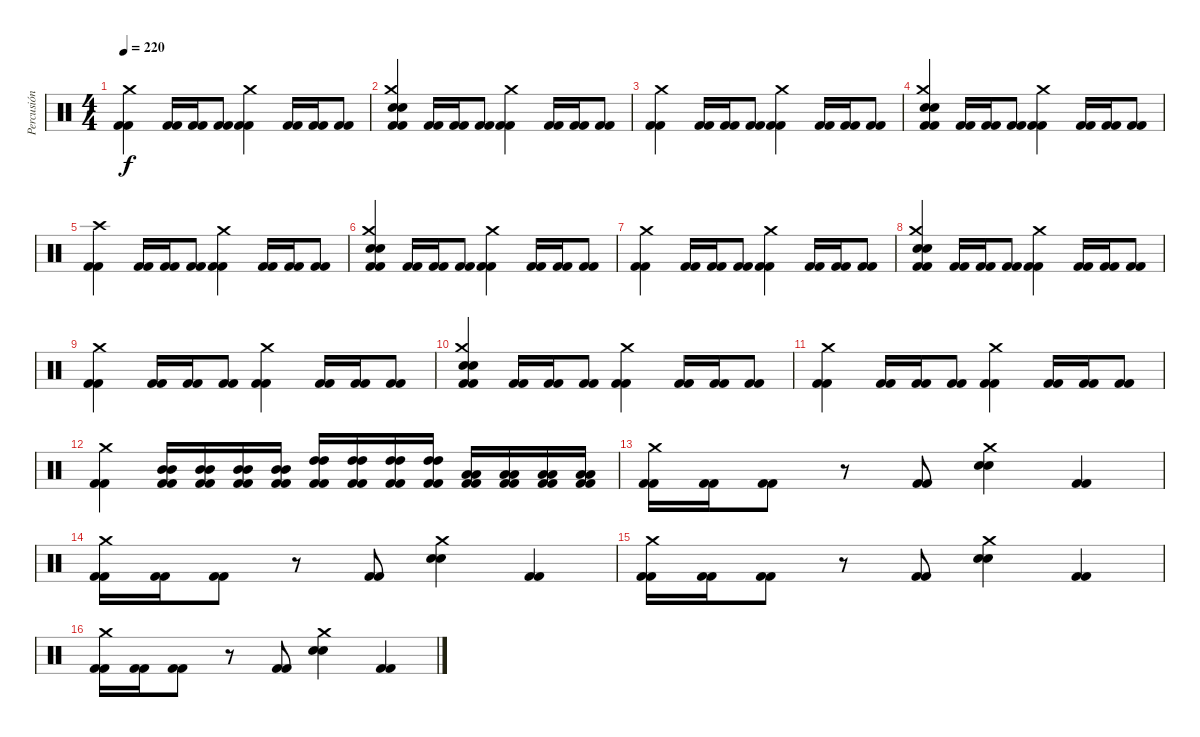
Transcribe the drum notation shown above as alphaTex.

\track ("Percusión" "Percusión") {instrument percussion}
\staff {score}
\articulation defaults
\ts (4 4)
\tempo 220
\clef neutral
\ks c
("Kick (hit) 2" "Kick (hit) 2" "Crash medium (hit)").4{dy f} ("Kick (hit) 2" "Kick (hit) 2").16 ("Kick (hit) 2" "Kick (hit) 2").16 ("Kick (hit) 2" "Kick (hit) 2").8 ("Kick (hit) 2" "Kick (hit) 2" "Crash medium (hit)").4 ("Kick (hit) 2" "Kick (hit) 2").16 ("Kick (hit) 2" "Kick (hit) 2").16 ("Kick (hit) 2" "Kick (hit) 2").8 |
("Kick (hit) 2" "Kick (hit) 2" "Electric Snare (hit)" "Electric Snare (hit)" "Crash medium (hit)").4 ("Kick (hit) 2" "Kick (hit) 2").16 ("Kick (hit) 2" "Kick (hit) 2").16 ("Kick (hit) 2" "Kick (hit) 2").8 ("Kick (hit) 2" "Kick (hit) 2" "Crash medium (hit)").4 ("Kick (hit) 2" "Kick (hit) 2").16 ("Kick (hit) 2" "Kick (hit) 2").16 ("Kick (hit) 2" "Kick (hit) 2").8 |
("Kick (hit) 2" "Kick (hit) 2" "Crash medium (hit)").4 ("Kick (hit) 2" "Kick (hit) 2").16 ("Kick (hit) 2" "Kick (hit) 2").16 ("Kick (hit) 2" "Kick (hit) 2").8 ("Kick (hit) 2" "Kick (hit) 2" "Crash medium (hit)").4 ("Kick (hit) 2" "Kick (hit) 2").16 ("Kick (hit) 2" "Kick (hit) 2").16 ("Kick (hit) 2" "Kick (hit) 2").8 |
("Kick (hit) 2" "Kick (hit) 2" "Electric Snare (hit)" "Electric Snare (hit)" "Crash medium (hit)").4 ("Kick (hit) 2" "Kick (hit) 2").16 ("Kick (hit) 2" "Kick (hit) 2").16 ("Kick (hit) 2" "Kick (hit) 2").8 ("Kick (hit) 2" "Kick (hit) 2" "Crash medium (hit)").4 ("Kick (hit) 2" "Kick (hit) 2").16 ("Kick (hit) 2" "Kick (hit) 2").16 ("Kick (hit) 2" "Kick (hit) 2").8 |
("Kick (hit) 2" "Kick (hit) 2" "Crash high (hit)").4 ("Kick (hit) 2" "Kick (hit) 2").16 ("Kick (hit) 2" "Kick (hit) 2").16 ("Kick (hit) 2" "Kick (hit) 2").8 ("Kick (hit) 2" "Kick (hit) 2" "Crash medium (hit)").4 ("Kick (hit) 2" "Kick (hit) 2").16 ("Kick (hit) 2" "Kick (hit) 2").16 ("Kick (hit) 2" "Kick (hit) 2").8 |
("Kick (hit) 2" "Kick (hit) 2" "Electric Snare (hit)" "Electric Snare (hit)" "Crash medium (hit)").4 ("Kick (hit) 2" "Kick (hit) 2").16 ("Kick (hit) 2" "Kick (hit) 2").16 ("Kick (hit) 2" "Kick (hit) 2").8 ("Kick (hit) 2" "Kick (hit) 2" "Crash medium (hit)").4 ("Kick (hit) 2" "Kick (hit) 2").16 ("Kick (hit) 2" "Kick (hit) 2").16 ("Kick (hit) 2" "Kick (hit) 2").8 |
("Kick (hit) 2" "Kick (hit) 2" "Crash medium (hit)").4 ("Kick (hit) 2" "Kick (hit) 2").16 ("Kick (hit) 2" "Kick (hit) 2").16 ("Kick (hit) 2" "Kick (hit) 2").8 ("Kick (hit) 2" "Kick (hit) 2" "Crash medium (hit)").4 ("Kick (hit) 2" "Kick (hit) 2").16 ("Kick (hit) 2" "Kick (hit) 2").16 ("Kick (hit) 2" "Kick (hit) 2").8 |
("Kick (hit) 2" "Kick (hit) 2" "Electric Snare (hit)" "Electric Snare (hit)" "Crash medium (hit)").4 ("Kick (hit) 2" "Kick (hit) 2").16 ("Kick (hit) 2" "Kick (hit) 2").16 ("Kick (hit) 2" "Kick (hit) 2").8 ("Kick (hit) 2" "Kick (hit) 2" "Crash medium (hit)").4 ("Kick (hit) 2" "Kick (hit) 2").16 ("Kick (hit) 2" "Kick (hit) 2").16 ("Kick (hit) 2" "Kick (hit) 2").8 |
("Kick (hit) 2" "Kick (hit) 2" "Crash medium (hit)").4 ("Kick (hit) 2" "Kick (hit) 2").16 ("Kick (hit) 2" "Kick (hit) 2").16 ("Kick (hit) 2" "Kick (hit) 2").8 ("Kick (hit) 2" "Kick (hit) 2" "Crash medium (hit)").4 ("Kick (hit) 2" "Kick (hit) 2").16 ("Kick (hit) 2" "Kick (hit) 2").16 ("Kick (hit) 2" "Kick (hit) 2").8 |
("Kick (hit) 2" "Kick (hit) 2" "Electric Snare (hit)" "Electric Snare (hit)" "Crash medium (hit)").4 ("Kick (hit) 2" "Kick (hit) 2").16 ("Kick (hit) 2" "Kick (hit) 2").16 ("Kick (hit) 2" "Kick (hit) 2").8 ("Kick (hit) 2" "Kick (hit) 2" "Crash medium (hit)").4 ("Kick (hit) 2" "Kick (hit) 2").16 ("Kick (hit) 2" "Kick (hit) 2").16 ("Kick (hit) 2" "Kick (hit) 2").8 |
("Kick (hit) 2" "Kick (hit) 2" "Crash medium (hit)").4 ("Kick (hit) 2" "Kick (hit) 2").16 ("Kick (hit) 2" "Kick (hit) 2").16 ("Kick (hit) 2" "Kick (hit) 2").8 ("Kick (hit) 2" "Kick (hit) 2" "Crash medium (hit)").4 ("Kick (hit) 2" "Kick (hit) 2").16 ("Kick (hit) 2" "Kick (hit) 2").16 ("Kick (hit) 2" "Kick (hit) 2").8 |
("Kick (hit) 2" "Kick (hit) 2" "Crash medium (hit)").4 ("Kick (hit) 2" "Kick (hit) 2" "Mid Tom (hit)" "Mid Tom (hit)").16 ("Kick (hit) 2" "Kick (hit) 2" "Mid Tom (hit)" "Mid Tom (hit)").16 ("Kick (hit) 2" "Kick (hit) 2" "Mid Tom (hit)" "Mid Tom (hit)").16 ("Kick (hit) 2" "Kick (hit) 2" "Mid Tom (hit)" "Mid Tom (hit)").16 ("Kick (hit) 2" "Kick (hit) 2" "High Tom (hit)" "High Tom (hit)").16 ("Kick (hit) 2" "Kick (hit) 2" "High Tom (hit)" "High Tom (hit)").16 ("Kick (hit) 2" "Kick (hit) 2" "High Tom (hit)" "High Tom (hit)").16 ("Kick (hit) 2" "Kick (hit) 2" "High Tom (hit)" "High Tom (hit)").16 ("Kick (hit) 2" "Kick (hit) 2" "Low Floor Tom (hit)" "Low Floor Tom (hit)").16 ("Kick (hit) 2" "Kick (hit) 2" "Low Floor Tom (hit)" "Low Floor Tom (hit)").16 ("Kick (hit) 2" "Kick (hit) 2" "Low Floor Tom (hit)" "Low Floor Tom (hit)").16 ("Kick (hit) 2" "Kick (hit) 2" "Low Floor Tom (hit)" "Low Floor Tom (hit)").16 |
("Kick (hit) 2" "Kick (hit) 2" "Crash medium (hit)").16 ("Kick (hit) 2" "Kick (hit) 2").16 ("Kick (hit) 2" "Kick (hit) 2").8 r.8 ("Kick (hit) 2" "Kick (hit) 2").8 ("Electric Snare (hit)" "Electric Snare (hit)" "Crash medium (hit)").4 ("Kick (hit) 2" "Kick (hit) 2").4 |
("Kick (hit) 2" "Kick (hit) 2" "Crash medium (hit)").16 ("Kick (hit) 2" "Kick (hit) 2").16 ("Kick (hit) 2" "Kick (hit) 2").8 r.8 ("Kick (hit) 2" "Kick (hit) 2").8 ("Electric Snare (hit)" "Electric Snare (hit)" "Crash medium (hit)").4 ("Kick (hit) 2" "Kick (hit) 2").4 |
("Kick (hit) 2" "Kick (hit) 2" "Crash medium (hit)").16 ("Kick (hit) 2" "Kick (hit) 2").16 ("Kick (hit) 2" "Kick (hit) 2").8 r.8 ("Kick (hit) 2" "Kick (hit) 2").8 ("Electric Snare (hit)" "Electric Snare (hit)" "Crash medium (hit)").4 ("Kick (hit) 2" "Kick (hit) 2").4 |
("Kick (hit) 2" "Kick (hit) 2" "Crash medium (hit)").16 ("Kick (hit) 2" "Kick (hit) 2").16 ("Kick (hit) 2" "Kick (hit) 2").8 r.8 ("Kick (hit) 2" "Kick (hit) 2").8 ("Electric Snare (hit)" "Electric Snare (hit)" "Crash medium (hit)").4 ("Kick (hit) 2" "Kick (hit) 2").4
